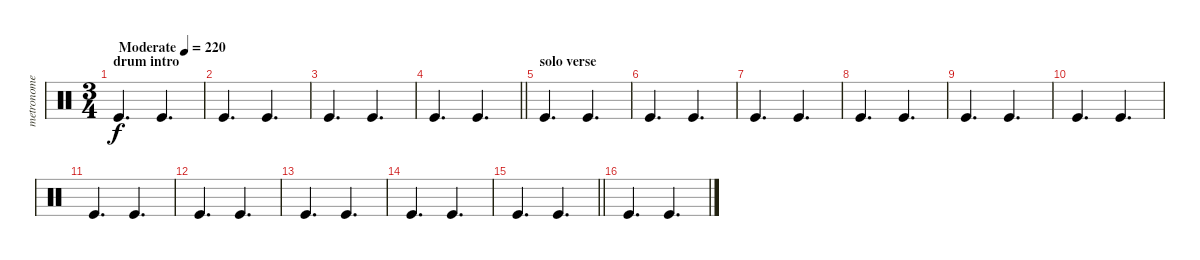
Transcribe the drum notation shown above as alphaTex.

\track ("metronome" "metronome") {instrument percussion}
\staff {score}
\articulation defaults
\ts (3 4)
\section ("" "drum intro")
\tempo (220 "Moderate")
\clef neutral
\ks c "Kick (hit)".4{d dy f} "Kick (hit)".4{d}
|
"Kick (hit)".4{d} "Kick (hit)".4{d} |
"Kick (hit)".4{d} "Kick (hit)".4{d} |
\barLineRight lightlight "Kick (hit)".4{d} "Kick (hit)".4{d}
|
\section ("" "solo verse")
"Kick (hit)".4{d} "Kick (hit)".4{d} |
"Kick (hit)".4{d} "Kick (hit)".4{d} |
"Kick (hit)".4{d} "Kick (hit)".4{d} |
"Kick (hit)".4{d} "Kick (hit)".4{d} |
"Kick (hit)".4{d} "Kick (hit)".4{d} |
"Kick (hit)".4{d} "Kick (hit)".4{d} |
"Kick (hit)".4{d} "Kick (hit)".4{d} |
"Kick (hit)".4{d} "Kick (hit)".4{d} |
"Kick (hit)".4{d} "Kick (hit)".4{d} |
"Kick (hit)".4{d} "Kick (hit)".4{d} |
\barLineRight lightlight "Kick (hit)".4{d} "Kick (hit)".4{d}
|
"Kick (hit)".4{d} "Kick (hit)".4{d}
